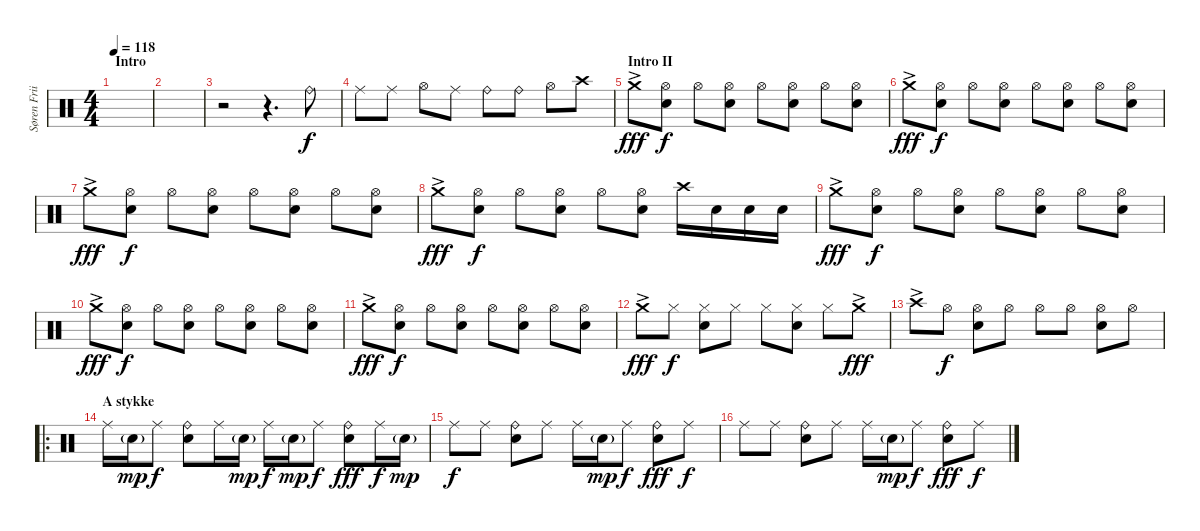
\track ("Søren Friis (Drums)" "Søren Frii") {instrument percussion}
\staff {score}
\articulation defaults
\ts (4 4)
\section ("" "Intro")
\tempo 118
\clef neutral
\ks c
|
|
r.2 r.4{d} "Ride (bell)".8 |
"Ride (middle)".8 "Ride (middle)".8 "Hi-Hat (open)".8 "Ride (middle)".8 "Ride (bell)".8 "Ride (bell)".8 "Hi-Hat (open)".8 "Crash high (hit)".8 |
\section ("" "Intro II")
"Crash medium (hit)"{ac}.8{dy fff} ("Hi-Hat (open)" "Snare (hit) 2").8{dy f} "Hi-Hat (open)".8 ("Hi-Hat (open)" "Snare (hit) 2").8 "Hi-Hat (open)".8 ("Hi-Hat (open)" "Snare (hit) 2").8 "Hi-Hat (open)".8 ("Hi-Hat (open)" "Snare (hit) 2").8 |
"Crash medium (hit)"{ac}.8{dy fff} ("Hi-Hat (open)" "Snare (hit) 2").8{dy f} "Hi-Hat (open)".8 ("Hi-Hat (open)" "Snare (hit) 2").8 "Hi-Hat (open)".8 ("Hi-Hat (open)" "Snare (hit) 2").8 "Hi-Hat (open)".8 ("Hi-Hat (open)" "Snare (hit) 2").8 |
"Crash medium (hit)"{ac}.8{dy fff} ("Hi-Hat (open)" "Snare (hit) 2").8{dy f} "Hi-Hat (open)".8 ("Hi-Hat (open)" "Snare (hit) 2").8 "Hi-Hat (open)".8 ("Hi-Hat (open)" "Snare (hit) 2").8 "Hi-Hat (open)".8 ("Hi-Hat (open)" "Snare (hit) 2").8 |
"Crash medium (hit)"{ac}.8{dy fff} ("Hi-Hat (open)" "Snare (hit) 2").8{dy f} "Hi-Hat (open)".8 ("Hi-Hat (open)" "Snare (hit) 2").8 "Hi-Hat (open)".8 ("Hi-Hat (open)" "Snare (hit) 2").8 "Crash high (hit)".16 "Snare (hit) 2".16 "Snare (hit) 2".16 "Snare (hit) 2".16 |
"Crash medium (hit)"{ac}.8{dy fff} ("Hi-Hat (open)" "Snare (hit) 2").8{dy f} "Hi-Hat (open)".8 ("Hi-Hat (open)" "Snare (hit) 2").8 "Hi-Hat (open)".8 ("Hi-Hat (open)" "Snare (hit) 2").8 "Hi-Hat (open)".8 ("Hi-Hat (open)" "Snare (hit) 2").8 |
"Crash medium (hit)"{ac}.8{dy fff} ("Hi-Hat (open)" "Snare (hit) 2").8{dy f} "Hi-Hat (open)".8 ("Hi-Hat (open)" "Snare (hit) 2").8 "Hi-Hat (open)".8 ("Hi-Hat (open)" "Snare (hit) 2").8 "Hi-Hat (open)".8 ("Hi-Hat (open)" "Snare (hit) 2").8 |
"Crash medium (hit)"{ac}.8{dy fff} ("Hi-Hat (open)" "Snare (hit) 2").8{dy f} "Hi-Hat (open)".8 ("Hi-Hat (open)" "Snare (hit) 2").8 "Hi-Hat (open)".8 ("Hi-Hat (open)" "Snare (hit) 2").8 "Hi-Hat (open)".8 ("Hi-Hat (open)" "Snare (hit) 2").8 |
"Crash medium (hit)"{ac}.8{dy fff} "Hi-Hat (closed)".8{dy f} ("Hi-Hat (closed)" "Snare (hit) 2").8 "Hi-Hat (closed)".8 "Hi-Hat (closed)".8 ("Hi-Hat (closed)" "Snare (hit) 2").8 "Hi-Hat (closed)".8 "Crash medium (hit)"{ac}.8{dy fff} |
"Crash high (hit)"{ac}.8 "Hi-Hat (open)".8{dy f} ("Hi-Hat (open)" "Snare (hit) 2").8 "Hi-Hat (open)".8 "Hi-Hat (open)".8 "Hi-Hat (open)".8 ("Hi-Hat (open)" "Snare (hit) 2").8 "Hi-Hat (open)".8 |
\ro
\section ("" "A stykke")
"Ride (middle)".16 "Snare (hit) 2"{g}.16{dy mp} "Ride (middle)".8{dy f} ("Ride (bell)" "Snare (hit) 2").8 "Ride (middle)".16 "Snare (hit) 2"{g}.16{dy mp} "Ride (middle)".16{dy f} "Snare (hit) 2"{g}.16{dy mp} "Ride (middle)".8{dy f} ("Ride (bell)" "Snare (hit) 2").8{dy fff} "Ride (middle)".16{dy f} "Snare (hit) 2"{g}.16{dy mp} |
"Ride (middle)".8{dy f} "Ride (middle)".8 ("Ride (bell)" "Snare (hit) 2").8 "Ride (middle)".8 "Ride (middle)".16 "Snare (hit) 2"{g}.16{dy mp} "Ride (middle)".8{dy f} ("Ride (bell)" "Snare (hit) 2").8{dy fff} "Ride (middle)".8{dy f} |
"Ride (middle)".8 "Ride (middle)".8 ("Ride (bell)" "Snare (hit) 2").8 "Ride (middle)".8 "Ride (middle)".16 "Snare (hit) 2"{g}.16{dy mp} "Ride (middle)".8{dy f} ("Ride (bell)" "Snare (hit) 2").8{dy fff} "Ride (middle)".8{dy f}
